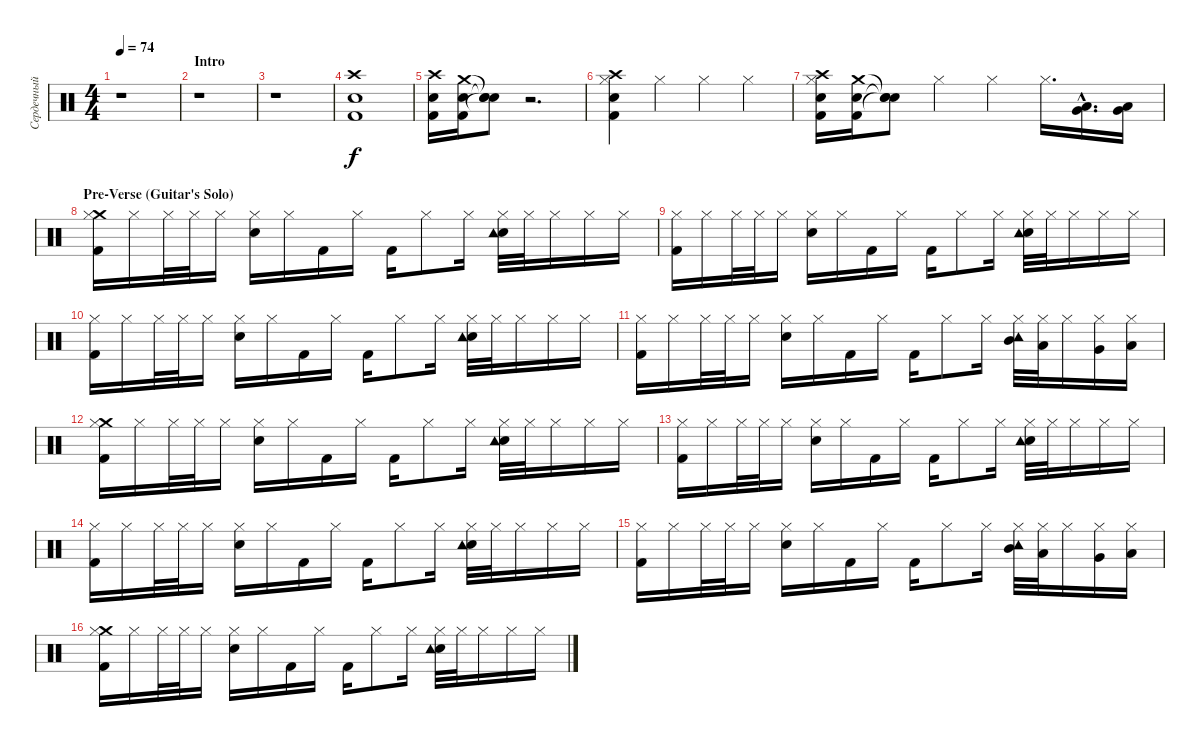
\track ("Сердечный (Ударные)" "Сердечный ") {instrument percussion}
\staff {score}
\articulation defaults
\ts (4 4)
\tempo 74
\clef neutral
\ks c
r.1{dy f} |
\section ("" "Intro")
r.1 |
r.1 |
("Kick (hit) 2" "Electric Snare (hit)" "Crash high (hit)").1 |
("Kick (hit) 2" "Electric Snare (hit)" "Crash high (hit)").16 ("Kick (hit) 2" "Electric Snare (hit)" "Crash medium (hit)").16 ("Snare (hit)"{t} "Snare (hit)"{t} "Snare (hit)"{t}).8 r.2{d} |
("Kick (hit) 2" "Electric Snare (hit)" "Crash high (hit)" "Hi-Hat (closed)").4 "Hi-Hat (closed)".4 "Hi-Hat (closed)".4 "Hi-Hat (closed)".4 |
("Kick (hit) 2" "Electric Snare (hit)" "Crash high (hit)" "Hi-Hat (closed)").16 ("Kick (hit) 2" "Electric Snare (hit)" "Crash medium (hit)").16 ("Snare (hit)"{t} "Snare (hit)"{t} "Snare (hit)"{t}).8 "Hi-Hat (closed)".4 "Hi-Hat (closed)".4 "Hi-Hat (closed)".16{d} ("Low Tom (hit)"{hac} "Very Low Tom (hit)"{hac}).16{d} ("Very Low Tom (hit)" "Low Floor Tom (hit)").16 |
\section ("" "Pre-Verse (Guitar's Solo)")
("Kick (hit) 2" "Crash medium (hit)" "Hi-Hat (closed)").16 "Hi-Hat (closed)".16 "Hi-Hat (closed)".32 "Hi-Hat (closed)".32 "Hi-Hat (closed)".16 ("Electric Snare (hit)" "Hi-Hat (closed)").16 "Hi-Hat (closed)".16 "Kick (hit) 2".16 "Hi-Hat (closed)".16 "Kick (hit) 2".16 "Hi-Hat (closed)".8 "Hi-Hat (closed)".16 ("Electric Snare (hit)" "Tambourine (hit)" "Hi-Hat (closed)").32 "Hi-Hat (closed)".32 "Hi-Hat (closed)".16 "Hi-Hat (closed)".16 "Hi-Hat (closed)".16 |
("Kick (hit) 2" "Hi-Hat (closed)").16 "Hi-Hat (closed)".16 "Hi-Hat (closed)".32 "Hi-Hat (closed)".32 "Hi-Hat (closed)".16 ("Electric Snare (hit)" "Hi-Hat (closed)").16 "Hi-Hat (closed)".16 "Kick (hit) 2".16 "Hi-Hat (closed)".16 "Kick (hit) 2".16 "Hi-Hat (closed)".8 "Hi-Hat (closed)".16 ("Electric Snare (hit)" "Tambourine (hit)" "Hi-Hat (closed)").32 "Hi-Hat (closed)".32 "Hi-Hat (closed)".16 "Hi-Hat (closed)".16 "Hi-Hat (closed)".16 |
("Kick (hit) 2" "Hi-Hat (closed)").16 "Hi-Hat (closed)".16 "Hi-Hat (closed)".32 "Hi-Hat (closed)".32 "Hi-Hat (closed)".16 ("Electric Snare (hit)" "Hi-Hat (closed)").16 "Hi-Hat (closed)".16 "Kick (hit) 2".16 "Hi-Hat (closed)".16 "Kick (hit) 2".16 "Hi-Hat (closed)".8 "Hi-Hat (closed)".16 ("Electric Snare (hit)" "Tambourine (hit)" "Hi-Hat (closed)").32 "Hi-Hat (closed)".32 "Hi-Hat (closed)".16 "Hi-Hat (closed)".16 "Hi-Hat (closed)".16 |
("Kick (hit) 2" "Hi-Hat (closed)").16 "Hi-Hat (closed)".16 "Hi-Hat (closed)".32 "Hi-Hat (closed)".32 "Hi-Hat (closed)".16 ("Electric Snare (hit)" "Hi-Hat (closed)").16 "Hi-Hat (closed)".16 "Kick (hit) 2".16 "Hi-Hat (closed)".16 "Kick (hit) 2".16 "Hi-Hat (closed)".8 "Hi-Hat (closed)".16 ("Mid Tom (hit)" "Tambourine (hit)" "Hi-Hat (closed)").32 ("Low Tom (hit)" "Hi-Hat (closed)").32 "Hi-Hat (closed)".16 ("Very Low Tom (hit)" "Hi-Hat (closed)").16 ("Low Floor Tom (hit)" "Hi-Hat (closed)").16 |
("Kick (hit) 2" "Crash medium (hit)" "Hi-Hat (closed)").16 "Hi-Hat (closed)".16 "Hi-Hat (closed)".32 "Hi-Hat (closed)".32 "Hi-Hat (closed)".16 ("Electric Snare (hit)" "Hi-Hat (closed)").16 "Hi-Hat (closed)".16 "Kick (hit) 2".16 "Hi-Hat (closed)".16 "Kick (hit) 2".16 "Hi-Hat (closed)".8 "Hi-Hat (closed)".16 ("Electric Snare (hit)" "Tambourine (hit)" "Hi-Hat (closed)").32 "Hi-Hat (closed)".32 "Hi-Hat (closed)".16 "Hi-Hat (closed)".16 "Hi-Hat (closed)".16 |
("Kick (hit) 2" "Hi-Hat (closed)").16 "Hi-Hat (closed)".16 "Hi-Hat (closed)".32 "Hi-Hat (closed)".32 "Hi-Hat (closed)".16 ("Electric Snare (hit)" "Hi-Hat (closed)").16 "Hi-Hat (closed)".16 "Kick (hit) 2".16 "Hi-Hat (closed)".16 "Kick (hit) 2".16 "Hi-Hat (closed)".8 "Hi-Hat (closed)".16 ("Electric Snare (hit)" "Tambourine (hit)" "Hi-Hat (closed)").32 "Hi-Hat (closed)".32 "Hi-Hat (closed)".16 "Hi-Hat (closed)".16 "Hi-Hat (closed)".16 |
("Kick (hit) 2" "Hi-Hat (closed)").16 "Hi-Hat (closed)".16 "Hi-Hat (closed)".32 "Hi-Hat (closed)".32 "Hi-Hat (closed)".16 ("Electric Snare (hit)" "Hi-Hat (closed)").16 "Hi-Hat (closed)".16 "Kick (hit) 2".16 "Hi-Hat (closed)".16 "Kick (hit) 2".16 "Hi-Hat (closed)".8 "Hi-Hat (closed)".16 ("Electric Snare (hit)" "Tambourine (hit)" "Hi-Hat (closed)").32 "Hi-Hat (closed)".32 "Hi-Hat (closed)".16 "Hi-Hat (closed)".16 "Hi-Hat (closed)".16 |
("Kick (hit) 2" "Hi-Hat (closed)").16 "Hi-Hat (closed)".16 "Hi-Hat (closed)".32 "Hi-Hat (closed)".32 "Hi-Hat (closed)".16 ("Electric Snare (hit)" "Hi-Hat (closed)").16 "Hi-Hat (closed)".16 "Kick (hit) 2".16 "Hi-Hat (closed)".16 "Kick (hit) 2".16 "Hi-Hat (closed)".8 "Hi-Hat (closed)".16 ("Mid Tom (hit)" "Tambourine (hit)" "Hi-Hat (closed)").32 ("Low Tom (hit)" "Hi-Hat (closed)").32 "Hi-Hat (closed)".16 ("Very Low Tom (hit)" "Hi-Hat (closed)").16 ("Low Floor Tom (hit)" "Hi-Hat (closed)").16 |
("Kick (hit) 2" "Crash medium (hit)" "Hi-Hat (closed)").16 "Hi-Hat (closed)".16 "Hi-Hat (closed)".32 "Hi-Hat (closed)".32 "Hi-Hat (closed)".16 ("Electric Snare (hit)" "Hi-Hat (closed)").16 "Hi-Hat (closed)".16 "Kick (hit) 2".16 "Hi-Hat (closed)".16 "Kick (hit) 2".16 "Hi-Hat (closed)".8 "Hi-Hat (closed)".16 ("Electric Snare (hit)" "Tambourine (hit)" "Hi-Hat (closed)").32 "Hi-Hat (closed)".32 "Hi-Hat (closed)".16 "Hi-Hat (closed)".16 "Hi-Hat (closed)".16
